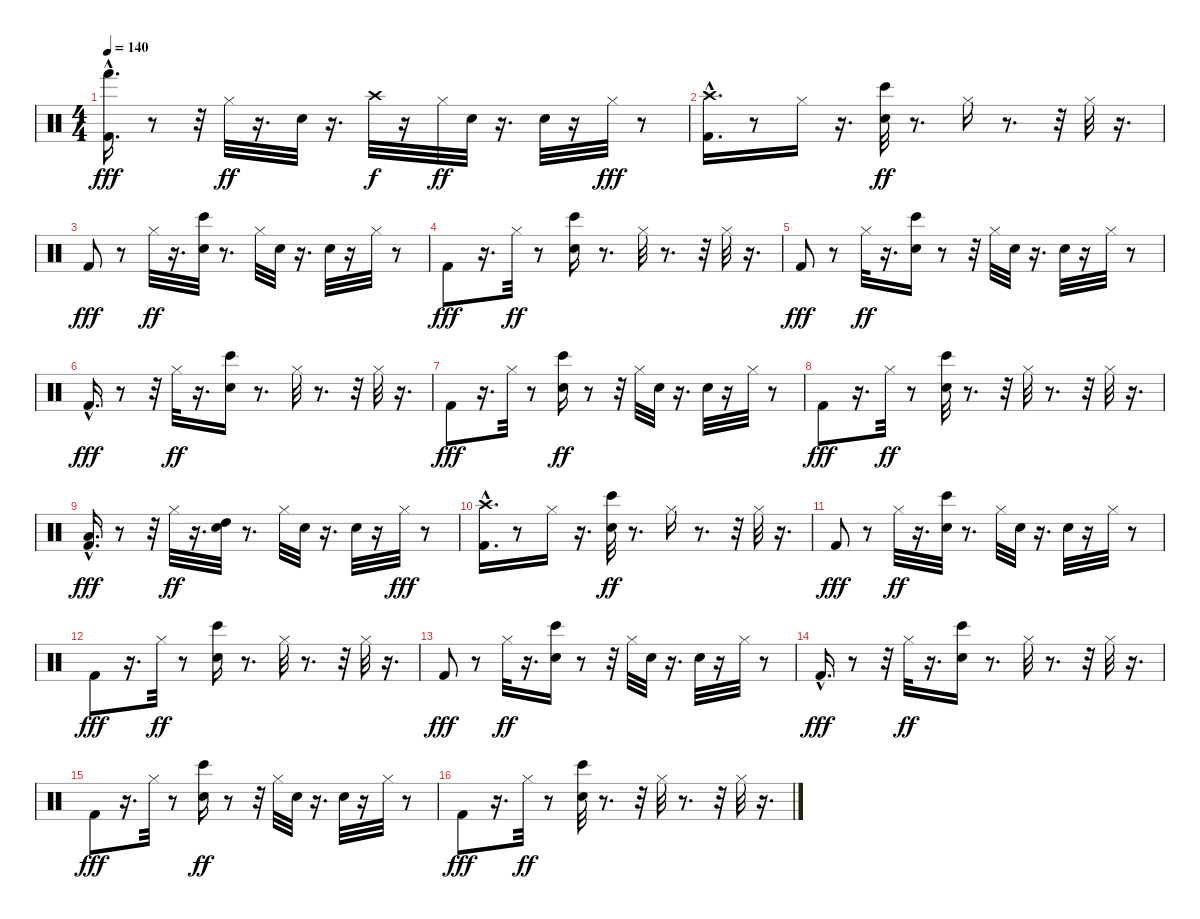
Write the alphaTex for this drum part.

\track "" {instrument percussion}
\staff {score}
\articulation defaults
\ts (4 4)
\tempo 140
\clef neutral
\ks c
("Hand (hit)" "Kick (hit) 2"{hac}).16{d dy fff} r.8 r.32 "Hi-Hat (closed)".32{dy ff} r.16{d} "Electric Snare (hit)".32 r.16{d} "Crash high (hit)".32{dy f} r.16 "Hi-Hat (closed)".32{dy ff} "Electric Snare (hit)".32 r.16{d} "Electric Snare (hit)".32 r.16 "Hi-Hat (closed)".32{dy fff} r.8 |
("Kick (hit) 2"{hac} "Crash high (hit)").16{d} r.8 "Hi-Hat (closed)".16 r.16{d} ("Bongo High (hit)" "Electric Snare (hit)").32{dy ff} r.8{d} "Hi-Hat (closed)".16 r.8{d} r.32 "Hi-Hat (closed)".32 r.16{d} |
"Kick (hit) 2".8{dy fff} r.8 "Hi-Hat (closed)".32{dy ff} r.16{d} ("Bongo High (hit)" "Electric Snare (hit)").32 r.8{d} "Hi-Hat (closed)".32 "Electric Snare (hit)".32 r.16{d} "Electric Snare (hit)".32 r.16 "Hi-Hat (closed)".32 r.8 |
"Kick (hit) 2".8{dy fff} r.16{d} "Hi-Hat (closed)".32{dy ff} r.8 ("Bongo High (hit)" "Electric Snare (hit)").16 r.8{d} "Hi-Hat (closed)".32 r.8{d} r.32 "Hi-Hat (closed)".32 r.16{d} |
"Kick (hit) 2".8{dy fff} r.8 "Hi-Hat (closed)".32{dy ff} r.16{d} ("Bongo High (hit)" "Electric Snare (hit)").16 r.8 r.32 "Hi-Hat (closed)".32 "Electric Snare (hit)".32 r.16{d} "Electric Snare (hit)".32 r.16 "Hi-Hat (closed)".32 r.8 |
"Kick (hit) 2"{hac}.16{d dy fff} r.8 r.32 "Hi-Hat (closed)".32{dy ff} r.16{d} ("Bongo High (hit)" "Electric Snare (hit)").16 r.8{d} "Hi-Hat (closed)".32 r.8{d} r.32 "Hi-Hat (closed)".32 r.16{d} |
"Kick (hit) 2".8{dy fff} r.16{d} "Hi-Hat (closed)".32 r.8 ("Electric Snare (hit)" "Bongo High (hit)").16{dy ff} r.8 r.32 "Hi-Hat (closed)".32 "Electric Snare (hit)".32 r.16{d} "Electric Snare (hit)".32 r.16 "Hi-Hat (closed)".32 r.8 |
"Kick (hit) 2".8{dy fff} r.16{d} "Hi-Hat (closed)".32{dy ff} r.8 ("Bongo High (hit)" "Electric Snare (hit)").32 r.8{d} r.32 "Hi-Hat (closed)".32 r.8{d} r.32 "Hi-Hat (closed)".32 r.16{d} |
("Kick (hit) 2"{hac} "Low Tom (hit)").16{d dy fff} r.8 r.32 "Hi-Hat (closed)".32{dy ff} r.16{d} ("High Tom (hit)" "Electric Snare (hit)").32 r.8{d} "Hi-Hat (closed)".32 "Electric Snare (hit)".32 r.16{d} "Electric Snare (hit)".32 r.16 "Hi-Hat (closed)".32{dy fff} r.8 |
("Kick (hit) 2"{hac} "Crash high (hit)").16{d} r.8 "Hi-Hat (closed)".16 r.16{d} ("Bongo High (hit)" "Electric Snare (hit)").32{dy ff} r.8{d} "Hi-Hat (closed)".16 r.8{d} r.32 "Hi-Hat (closed)".32 r.16{d} |
"Kick (hit) 2".8{dy fff} r.8 "Hi-Hat (closed)".32{dy ff} r.16{d} ("Bongo High (hit)" "Electric Snare (hit)").32 r.8{d} "Hi-Hat (closed)".32 "Electric Snare (hit)".32 r.16{d} "Electric Snare (hit)".32 r.16 "Hi-Hat (closed)".32 r.8 |
"Kick (hit) 2".8{dy fff} r.16{d} "Hi-Hat (closed)".32{dy ff} r.8 ("Bongo High (hit)" "Electric Snare (hit)").16 r.8{d} "Hi-Hat (closed)".32 r.8{d} r.32 "Hi-Hat (closed)".32 r.16{d} |
"Kick (hit) 2".8{dy fff} r.8 "Hi-Hat (closed)".32{dy ff} r.16{d} ("Bongo High (hit)" "Electric Snare (hit)").16 r.8 r.32 "Hi-Hat (closed)".32 "Electric Snare (hit)".32 r.16{d} "Electric Snare (hit)".32 r.16 "Hi-Hat (closed)".32 r.8 |
"Kick (hit) 2"{hac}.16{d dy fff} r.8 r.32 "Hi-Hat (closed)".32{dy ff} r.16{d} ("Bongo High (hit)" "Electric Snare (hit)").16 r.8{d} "Hi-Hat (closed)".32 r.8{d} r.32 "Hi-Hat (closed)".32 r.16{d} |
"Kick (hit) 2".8{dy fff} r.16{d} "Hi-Hat (closed)".32 r.8 ("Electric Snare (hit)" "Bongo High (hit)").16{dy ff} r.8 r.32 "Hi-Hat (closed)".32 "Electric Snare (hit)".32 r.16{d} "Electric Snare (hit)".32 r.16 "Hi-Hat (closed)".32 r.8 |
"Kick (hit) 2".8{dy fff} r.16{d} "Hi-Hat (closed)".32{dy ff} r.8 ("Bongo High (hit)" "Electric Snare (hit)").32 r.8{d} r.32 "Hi-Hat (closed)".32 r.8{d} r.32 "Hi-Hat (closed)".32 r.16{d}
